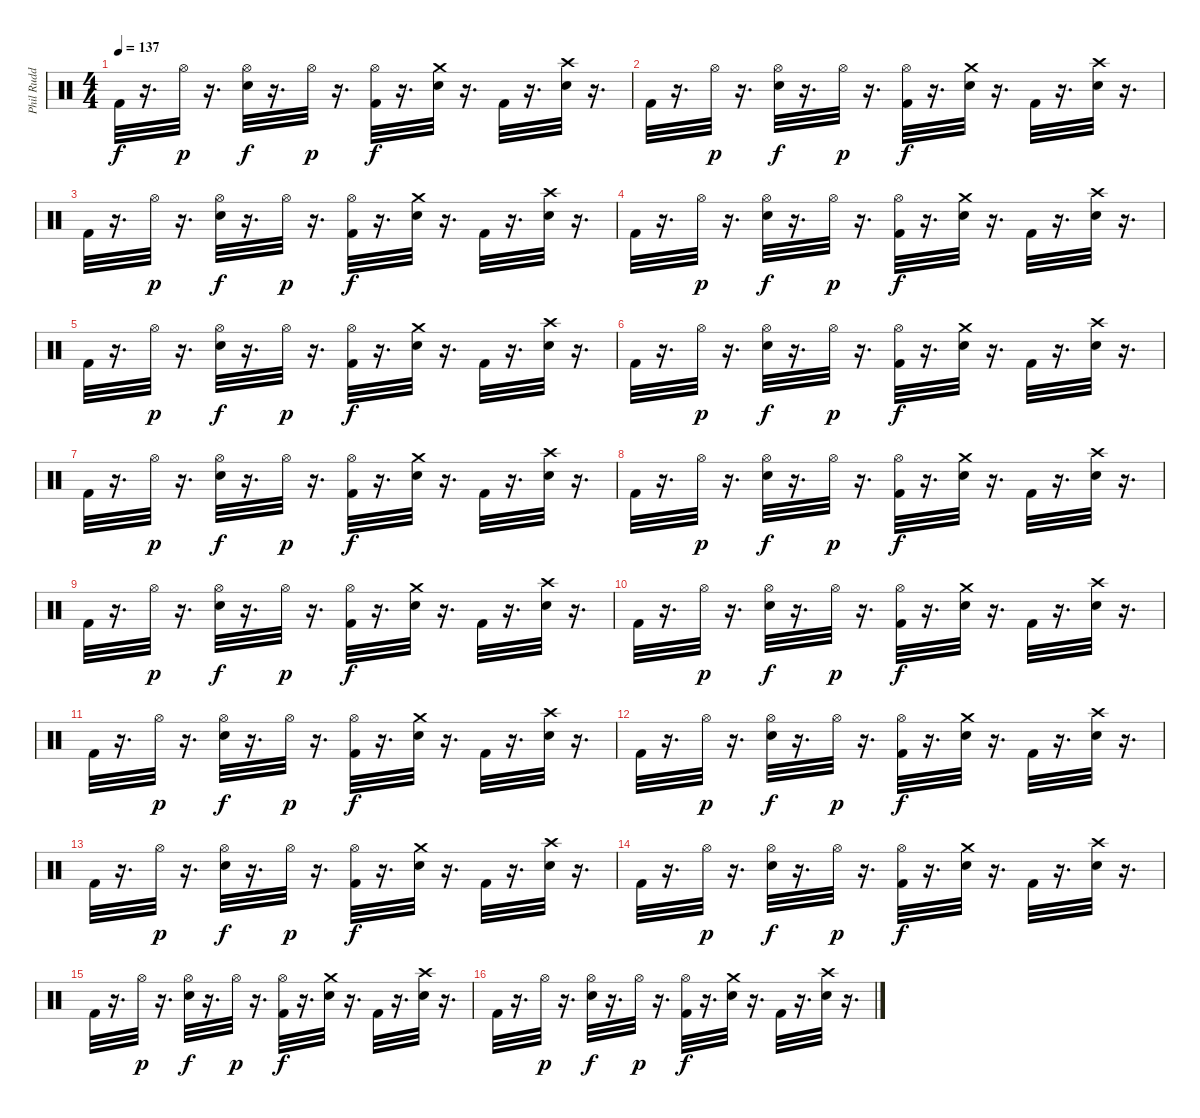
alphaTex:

\track ("Phil Rudd" "Phil Rudd") {instrument percussion}
\staff
\articulation defaults
\ts (4 4)
\tempo 137
\clef neutral
\ks c "Kick (hit) 2".32{dy f}
r.16{d} "Hi-Hat (open)".32{dy p} r.16{d} ("Hi-Hat (open)" "Electric Snare (hit)").32{dy f} r.16{d} "Hi-Hat (open)".32{dy p} r.16{d} ("Hi-Hat (open)" "Kick (hit) 2").32{dy f} r.16{d} ("Crash medium (hit)" "Electric Snare (hit)").32 r.16{d} "Kick (hit) 2".32 r.16{d} ("Crash high (hit)" "Electric Snare (hit)").32 r.16{d} |
"Kick (hit) 2".32 r.16{d} "Hi-Hat (open)".32{dy p} r.16{d} ("Hi-Hat (open)" "Electric Snare (hit)").32{dy f} r.16{d} "Hi-Hat (open)".32{dy p} r.16{d} ("Hi-Hat (open)" "Kick (hit) 2").32{dy f} r.16{d} ("Crash medium (hit)" "Electric Snare (hit)").32 r.16{d} "Kick (hit) 2".32 r.16{d} ("Crash high (hit)" "Electric Snare (hit)").32 r.16{d} |
"Kick (hit) 2".32 r.16{d} "Hi-Hat (open)".32{dy p} r.16{d} ("Hi-Hat (open)" "Electric Snare (hit)").32{dy f} r.16{d} "Hi-Hat (open)".32{dy p} r.16{d} ("Hi-Hat (open)" "Kick (hit) 2").32{dy f} r.16{d} ("Crash medium (hit)" "Electric Snare (hit)").32 r.16{d} "Kick (hit) 2".32 r.16{d} ("Crash high (hit)" "Electric Snare (hit)").32 r.16{d} |
"Kick (hit) 2".32 r.16{d} "Hi-Hat (open)".32{dy p} r.16{d} ("Hi-Hat (open)" "Electric Snare (hit)").32{dy f} r.16{d} "Hi-Hat (open)".32{dy p} r.16{d} ("Hi-Hat (open)" "Kick (hit) 2").32{dy f} r.16{d} ("Crash medium (hit)" "Electric Snare (hit)").32 r.16{d} "Kick (hit) 2".32 r.16{d} ("Crash high (hit)" "Electric Snare (hit)").32 r.16{d} |
"Kick (hit) 2".32 r.16{d} "Hi-Hat (open)".32{dy p} r.16{d} ("Hi-Hat (open)" "Electric Snare (hit)").32{dy f} r.16{d} "Hi-Hat (open)".32{dy p} r.16{d} ("Hi-Hat (open)" "Kick (hit) 2").32{dy f} r.16{d} ("Crash medium (hit)" "Electric Snare (hit)").32 r.16{d} "Kick (hit) 2".32 r.16{d} ("Crash high (hit)" "Electric Snare (hit)").32 r.16{d} |
"Kick (hit) 2".32 r.16{d} "Hi-Hat (open)".32{dy p} r.16{d} ("Hi-Hat (open)" "Electric Snare (hit)").32{dy f} r.16{d} "Hi-Hat (open)".32{dy p} r.16{d} ("Hi-Hat (open)" "Kick (hit) 2").32{dy f} r.16{d} ("Crash medium (hit)" "Electric Snare (hit)").32 r.16{d} "Kick (hit) 2".32 r.16{d} ("Crash high (hit)" "Electric Snare (hit)").32 r.16{d} |
"Kick (hit) 2".32 r.16{d} "Hi-Hat (open)".32{dy p} r.16{d} ("Hi-Hat (open)" "Electric Snare (hit)").32{dy f} r.16{d} "Hi-Hat (open)".32{dy p} r.16{d} ("Hi-Hat (open)" "Kick (hit) 2").32{dy f} r.16{d} ("Crash medium (hit)" "Electric Snare (hit)").32 r.16{d} "Kick (hit) 2".32 r.16{d} ("Crash high (hit)" "Electric Snare (hit)").32 r.16{d} |
"Kick (hit) 2".32 r.16{d} "Hi-Hat (open)".32{dy p} r.16{d} ("Hi-Hat (open)" "Electric Snare (hit)").32{dy f} r.16{d} "Hi-Hat (open)".32{dy p} r.16{d} ("Hi-Hat (open)" "Kick (hit) 2").32{dy f} r.16{d} ("Crash medium (hit)" "Electric Snare (hit)").32 r.16{d} "Kick (hit) 2".32 r.16{d} ("Crash high (hit)" "Electric Snare (hit)").32 r.16{d} |
"Kick (hit) 2".32 r.16{d} "Hi-Hat (open)".32{dy p} r.16{d} ("Hi-Hat (open)" "Electric Snare (hit)").32{dy f} r.16{d} "Hi-Hat (open)".32{dy p} r.16{d} ("Hi-Hat (open)" "Kick (hit) 2").32{dy f} r.16{d} ("Crash medium (hit)" "Electric Snare (hit)").32 r.16{d} "Kick (hit) 2".32 r.16{d} ("Crash high (hit)" "Electric Snare (hit)").32 r.16{d} |
"Kick (hit) 2".32 r.16{d} "Hi-Hat (open)".32{dy p} r.16{d} ("Hi-Hat (open)" "Electric Snare (hit)").32{dy f} r.16{d} "Hi-Hat (open)".32{dy p} r.16{d} ("Hi-Hat (open)" "Kick (hit) 2").32{dy f} r.16{d} ("Crash medium (hit)" "Electric Snare (hit)").32 r.16{d} "Kick (hit) 2".32 r.16{d} ("Crash high (hit)" "Electric Snare (hit)").32 r.16{d} |
"Kick (hit) 2".32 r.16{d} "Hi-Hat (open)".32{dy p} r.16{d} ("Hi-Hat (open)" "Electric Snare (hit)").32{dy f} r.16{d} "Hi-Hat (open)".32{dy p} r.16{d} ("Hi-Hat (open)" "Kick (hit) 2").32{dy f} r.16{d} ("Crash medium (hit)" "Electric Snare (hit)").32 r.16{d} "Kick (hit) 2".32 r.16{d} ("Crash high (hit)" "Electric Snare (hit)").32 r.16{d} |
"Kick (hit) 2".32 r.16{d} "Hi-Hat (open)".32{dy p} r.16{d} ("Hi-Hat (open)" "Electric Snare (hit)").32{dy f} r.16{d} "Hi-Hat (open)".32{dy p} r.16{d} ("Hi-Hat (open)" "Kick (hit) 2").32{dy f} r.16{d} ("Crash medium (hit)" "Electric Snare (hit)").32 r.16{d} "Kick (hit) 2".32 r.16{d} ("Crash high (hit)" "Electric Snare (hit)").32 r.16{d} |
"Kick (hit) 2".32 r.16{d} "Hi-Hat (open)".32{dy p} r.16{d} ("Hi-Hat (open)" "Electric Snare (hit)").32{dy f} r.16{d} "Hi-Hat (open)".32{dy p} r.16{d} ("Hi-Hat (open)" "Kick (hit) 2").32{dy f} r.16{d} ("Crash medium (hit)" "Electric Snare (hit)").32 r.16{d} "Kick (hit) 2".32 r.16{d} ("Crash high (hit)" "Electric Snare (hit)").32 r.16{d} |
"Kick (hit) 2".32 r.16{d} "Hi-Hat (open)".32{dy p} r.16{d} ("Hi-Hat (open)" "Electric Snare (hit)").32{dy f} r.16{d} "Hi-Hat (open)".32{dy p} r.16{d} ("Hi-Hat (open)" "Kick (hit) 2").32{dy f} r.16{d} ("Crash medium (hit)" "Electric Snare (hit)").32 r.16{d} "Kick (hit) 2".32 r.16{d} ("Crash high (hit)" "Electric Snare (hit)").32 r.16{d} |
"Kick (hit) 2".32 r.16{d} "Hi-Hat (open)".32{dy p} r.16{d} ("Hi-Hat (open)" "Electric Snare (hit)").32{dy f} r.16{d} "Hi-Hat (open)".32{dy p} r.16{d} ("Hi-Hat (open)" "Kick (hit) 2").32{dy f} r.16{d} ("Crash medium (hit)" "Electric Snare (hit)").32 r.16{d} "Kick (hit) 2".32 r.16{d} ("Crash high (hit)" "Electric Snare (hit)").32 r.16{d} |
"Kick (hit) 2".32 r.16{d} "Hi-Hat (open)".32{dy p} r.16{d} ("Hi-Hat (open)" "Electric Snare (hit)").32{dy f} r.16{d} "Hi-Hat (open)".32{dy p} r.16{d} ("Hi-Hat (open)" "Kick (hit) 2").32{dy f} r.16{d} ("Crash medium (hit)" "Electric Snare (hit)").32 r.16{d} "Kick (hit) 2".32 r.16{d} ("Crash high (hit)" "Electric Snare (hit)").32 r.16{d}
